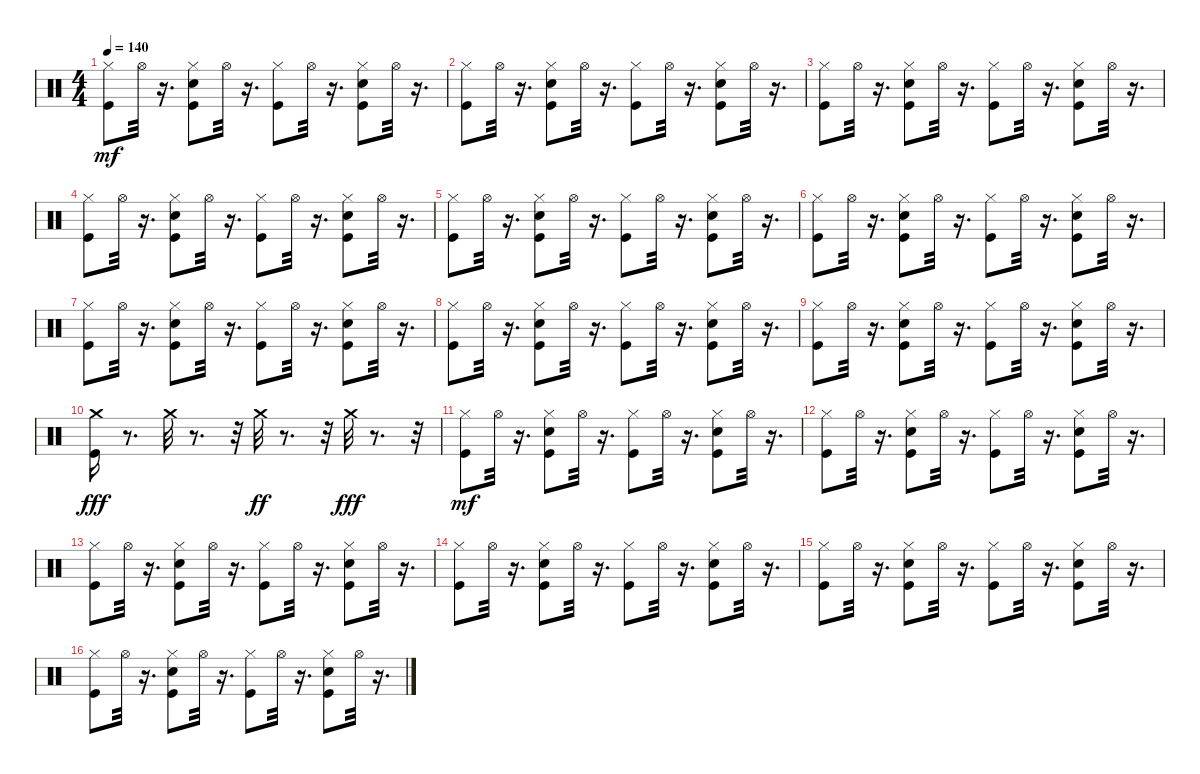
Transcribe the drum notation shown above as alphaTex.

\track "" {instrument percussion}
\staff {score}
\articulation defaults
\ts (4 4)
\tempo 140
\clef neutral
\ks c
("Kick (hit)" "Hi-Hat (closed)").8{dy mf} "Hi-Hat (open)".32 r.16{d} ("Kick (hit)" "Hi-Hat (closed)" "Hand Clap (hit)").8 "Hi-Hat (open)".32 r.16{d} ("Kick (hit)" "Hi-Hat (closed)").8 "Hi-Hat (open)".32 r.16{d} ("Kick (hit)" "Hi-Hat (closed)" "Hand Clap (hit)").8 "Hi-Hat (open)".32 r.16{d} |
("Kick (hit)" "Hi-Hat (closed)").8 "Hi-Hat (open)".32 r.16{d} ("Kick (hit)" "Hi-Hat (closed)" "Hand Clap (hit)").8 "Hi-Hat (open)".32 r.16{d} ("Kick (hit)" "Hi-Hat (closed)").8 "Hi-Hat (open)".32 r.16{d} ("Kick (hit)" "Hi-Hat (closed)" "Hand Clap (hit)").8 "Hi-Hat (open)".32 r.16{d} |
("Kick (hit)" "Hi-Hat (closed)").8 "Hi-Hat (open)".32 r.16{d} ("Kick (hit)" "Hi-Hat (closed)" "Hand Clap (hit)").8 "Hi-Hat (open)".32 r.16{d} ("Kick (hit)" "Hi-Hat (closed)").8 "Hi-Hat (open)".32 r.16{d} ("Kick (hit)" "Hi-Hat (closed)" "Hand Clap (hit)").8 "Hi-Hat (open)".32 r.16{d} |
("Kick (hit)" "Hi-Hat (closed)").8 "Hi-Hat (open)".32 r.16{d} ("Kick (hit)" "Hand Clap (hit)" "Hi-Hat (closed)").8 "Hi-Hat (open)".32 r.16{d} ("Kick (hit)" "Hi-Hat (closed)").8 "Hi-Hat (open)".32 r.16{d} ("Kick (hit)" "Hand Clap (hit)" "Hi-Hat (closed)").8 "Hi-Hat (open)".32 r.16{d} |
("Kick (hit)" "Hi-Hat (closed)").8 "Hi-Hat (open)".32 r.16{d} ("Kick (hit)" "Hand Clap (hit)" "Hi-Hat (closed)").8 "Hi-Hat (open)".32 r.16{d} ("Kick (hit)" "Hi-Hat (closed)").8 "Hi-Hat (open)".32 r.16{d} ("Kick (hit)" "Hi-Hat (closed)" "Hand Clap (hit)").8 "Hi-Hat (open)".32 r.16{d} |
("Kick (hit)" "Hi-Hat (closed)").8 "Hi-Hat (open)".32 r.16{d} ("Kick (hit)" "Hi-Hat (closed)" "Hand Clap (hit)").8 "Hi-Hat (open)".32 r.16{d} ("Kick (hit)" "Hi-Hat (closed)").8 "Hi-Hat (open)".32 r.16{d} ("Kick (hit)" "Hand Clap (hit)" "Hi-Hat (closed)").8 "Hi-Hat (open)".32 r.16{d} |
("Kick (hit)" "Hi-Hat (closed)").8 "Hi-Hat (open)".32 r.16{d} ("Kick (hit)" "Hi-Hat (closed)" "Hand Clap (hit)").8 "Hi-Hat (open)".32 r.16{d} ("Kick (hit)" "Hi-Hat (closed)").8 "Hi-Hat (open)".32 r.16{d} ("Kick (hit)" "Hand Clap (hit)" "Hi-Hat (closed)").8 "Hi-Hat (open)".32 r.16{d} |
("Kick (hit)" "Hi-Hat (closed)").8 "Hi-Hat (open)".32 r.16{d} ("Kick (hit)" "Hand Clap (hit)" "Hi-Hat (closed)").8 "Hi-Hat (open)".32 r.16{d} ("Kick (hit)" "Hi-Hat (closed)").8 "Hi-Hat (open)".32 r.16{d} ("Kick (hit)" "Hi-Hat (closed)" "Hand Clap (hit)").8 "Hi-Hat (open)".32 r.16{d} |
("Kick (hit)" "Hi-Hat (closed)").8 "Hi-Hat (open)".32 r.16{d} ("Kick (hit)" "Hand Clap (hit)" "Hi-Hat (closed)").8 "Hi-Hat (open)".32 r.16{d} ("Kick (hit)" "Hi-Hat (closed)").8 "Hi-Hat (open)".32 r.16{d} ("Kick (hit)" "Hi-Hat (closed)" "Hand Clap (hit)").8 "Hi-Hat (open)".32 r.16{d} |
("Crash medium (hit)" "Kick (hit)").16{dy fff} r.8{d} "Crash medium (hit)".32 r.8{d} r.32 "Crash medium (hit)".32{dy ff} r.8{d} r.32 "Crash medium (hit)".32{dy fff} r.8{d} r.32 |
("Kick (hit)" "Hi-Hat (closed)").8{dy mf} "Hi-Hat (open)".32 r.16{d} ("Kick (hit)" "Hand Clap (hit)" "Hi-Hat (closed)").8 "Hi-Hat (open)".32 r.16{d} ("Kick (hit)" "Hi-Hat (closed)").8 "Hi-Hat (open)".32 r.16{d} ("Kick (hit)" "Hand Clap (hit)" "Hi-Hat (closed)").8 "Hi-Hat (open)".32 r.16{d} |
("Kick (hit)" "Hi-Hat (closed)").8 "Hi-Hat (open)".32 r.16{d} ("Kick (hit)" "Hi-Hat (closed)" "Hand Clap (hit)").8 "Hi-Hat (open)".32 r.16{d} ("Kick (hit)" "Hi-Hat (closed)").8 "Hi-Hat (open)".32 r.16{d} ("Kick (hit)" "Hi-Hat (closed)" "Hand Clap (hit)").8 "Hi-Hat (open)".32 r.16{d} |
("Kick (hit)" "Hi-Hat (closed)").8 "Hi-Hat (open)".32 r.16{d} ("Kick (hit)" "Hand Clap (hit)" "Hi-Hat (closed)").8 "Hi-Hat (open)".32 r.16{d} ("Kick (hit)" "Hi-Hat (closed)").8 "Hi-Hat (open)".32 r.16{d} ("Kick (hit)" "Hand Clap (hit)" "Hi-Hat (closed)").8 "Hi-Hat (open)".32 r.16{d} |
("Kick (hit)" "Hi-Hat (closed)").8 "Hi-Hat (open)".32 r.16{d} ("Kick (hit)" "Hi-Hat (closed)" "Hand Clap (hit)").8 "Hi-Hat (open)".32 r.16{d} ("Kick (hit)" "Hi-Hat (closed)").8 "Hi-Hat (open)".32 r.16{d} ("Kick (hit)" "Hi-Hat (closed)" "Hand Clap (hit)").8 "Hi-Hat (open)".32 r.16{d} |
("Kick (hit)" "Hi-Hat (closed)").8 "Hi-Hat (open)".32 r.16{d} ("Kick (hit)" "Hi-Hat (closed)" "Hand Clap (hit)").8 "Hi-Hat (open)".32 r.16{d} ("Kick (hit)" "Hi-Hat (closed)").8 "Hi-Hat (open)".32 r.16{d} ("Kick (hit)" "Hand Clap (hit)" "Hi-Hat (closed)").8 "Hi-Hat (open)".32 r.16{d} |
("Kick (hit)" "Hi-Hat (closed)").8 "Hi-Hat (open)".32 r.16{d} ("Kick (hit)" "Hi-Hat (closed)" "Hand Clap (hit)").8 "Hi-Hat (open)".32 r.16{d} ("Kick (hit)" "Hi-Hat (closed)").8 "Hi-Hat (open)".32 r.16{d} ("Kick (hit)" "Hand Clap (hit)" "Hi-Hat (closed)").8 "Hi-Hat (open)".32 r.16{d}
